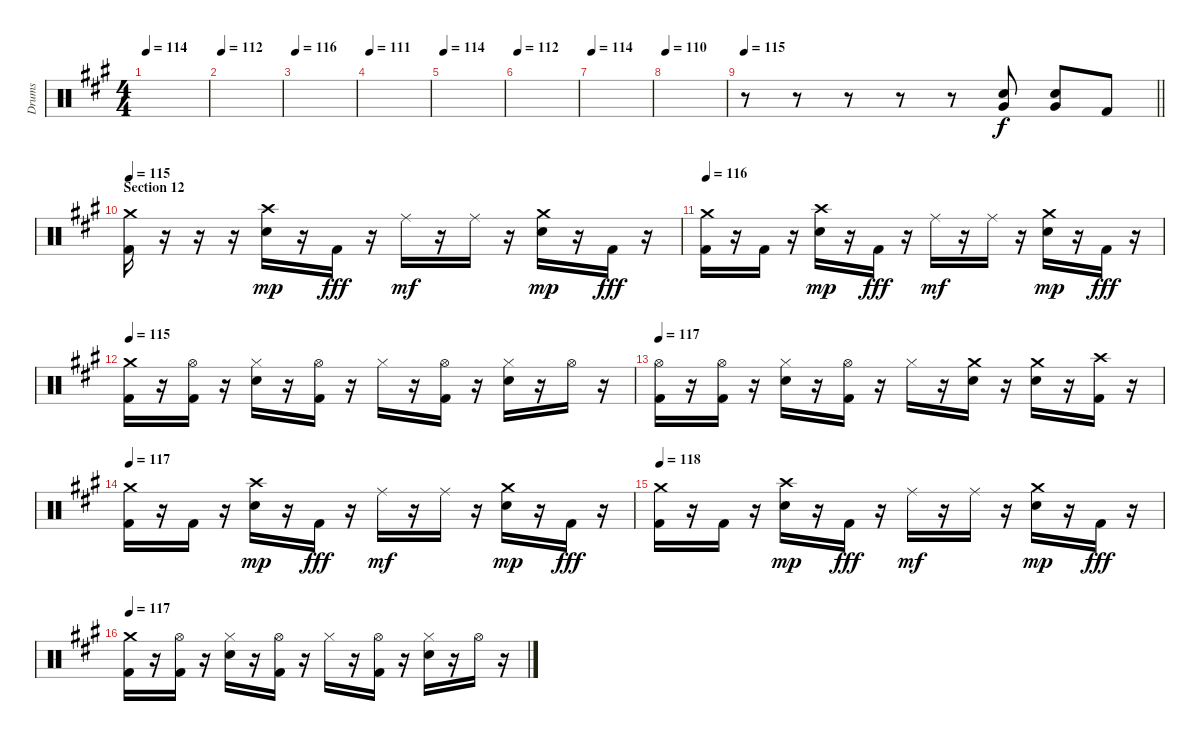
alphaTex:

\track ("Drums" "Drums") {instrument percussion}
\staff {score}
\articulation defaults
\ts (4 4)
\tempo 114
\clef neutral
\ks f#minor
|
\tempo 112
|
\tempo 116
|
\tempo 111
|
\tempo 114
|
\tempo 112
|
\tempo 114
|
\tempo 110
|
\tempo 115
\barLineRight lightlight
r.8 r.8 r.8 r.8 r.8 ("Electric Snare (hit)" "Very Low Tom (hit)").8 ("Electric Snare (hit)" "Very Low Tom (hit)").8 "Kick (hit) 2".8 |
\section ("" "Section 12")
\tempo 115
("Crash medium (hit)" "Kick (hit) 2").16 r.16 r.16 r.16 ("Crash high (hit)" "Electric Snare (hit)").16{dy mp} r.16 "Kick (hit) 2".16{dy fff} r.16 "Ride (middle)".16{dy mf} r.16 "Ride (middle)".16 r.16 ("Crash medium (hit)" "Electric Snare (hit)").16{dy mp} r.16 "Kick (hit) 2".16{dy fff} r.16 |
\tempo 116
("Crash medium (hit)" "Kick (hit) 2").16 r.16 "Kick (hit) 2".16 r.16 ("Crash high (hit)" "Electric Snare (hit)").16{dy mp} r.16 "Kick (hit) 2".16{dy fff} r.16 "Ride (middle)".16{dy mf} r.16 "Ride (middle)".16 r.16 ("Crash medium (hit)" "Electric Snare (hit)").16{dy mp} r.16 "Kick (hit) 2".16{dy fff} r.16 |
\tempo 115
("Crash medium (hit)" "Kick (hit) 2").16 r.16 ("Hi-Hat (open)" "Kick (hit) 2").16 r.16 ("Hi-Hat (closed)" "Electric Snare (hit)").16 r.16 ("Hi-Hat (open)" "Kick (hit) 2").16 r.16 "Hi-Hat (closed)".16 r.16 ("Hi-Hat (open)" "Kick (hit) 2").16 r.16 ("Hi-Hat (closed)" "Electric Snare (hit)").16 r.16 "Hi-Hat (open)".16 r.16 |
\tempo 117
("Hi-Hat (open)" "Kick (hit) 2").16 r.16 ("Hi-Hat (open)" "Kick (hit) 2").16 r.16 ("Hi-Hat (closed)" "Electric Snare (hit)").16 r.16 ("Hi-Hat (open)" "Kick (hit) 2").16 r.16 "Hi-Hat (closed)".16 r.16 ("Crash medium (hit)" "Electric Snare (hit)").16 r.16 ("Crash medium (hit)" "Electric Snare (hit)").16 r.16 ("Crash high (hit)" "Kick (hit) 2").16 r.16 |
\tempo 117
("Crash medium (hit)" "Kick (hit) 2").16 r.16 "Kick (hit) 2".16 r.16 ("Crash high (hit)" "Electric Snare (hit)").16{dy mp} r.16 "Kick (hit) 2".16{dy fff} r.16 "Ride (middle)".16{dy mf} r.16 "Ride (middle)".16 r.16 ("Crash medium (hit)" "Electric Snare (hit)").16{dy mp} r.16 "Kick (hit) 2".16{dy fff} r.16 |
\tempo 118
("Crash medium (hit)" "Kick (hit) 2").16 r.16 "Kick (hit) 2".16 r.16 ("Crash high (hit)" "Electric Snare (hit)").16{dy mp} r.16 "Kick (hit) 2".16{dy fff} r.16 "Ride (middle)".16{dy mf} r.16 "Ride (middle)".16 r.16 ("Crash medium (hit)" "Electric Snare (hit)").16{dy mp} r.16 "Kick (hit) 2".16{dy fff} r.16 |
\tempo 117
("Crash medium (hit)" "Kick (hit) 2").16 r.16 ("Hi-Hat (open)" "Kick (hit) 2").16 r.16 ("Hi-Hat (closed)" "Electric Snare (hit)").16 r.16 ("Hi-Hat (open)" "Kick (hit) 2").16 r.16 "Hi-Hat (closed)".16 r.16 ("Hi-Hat (open)" "Kick (hit) 2").16 r.16 ("Hi-Hat (closed)" "Electric Snare (hit)").16 r.16 "Hi-Hat (open)".16 r.16
